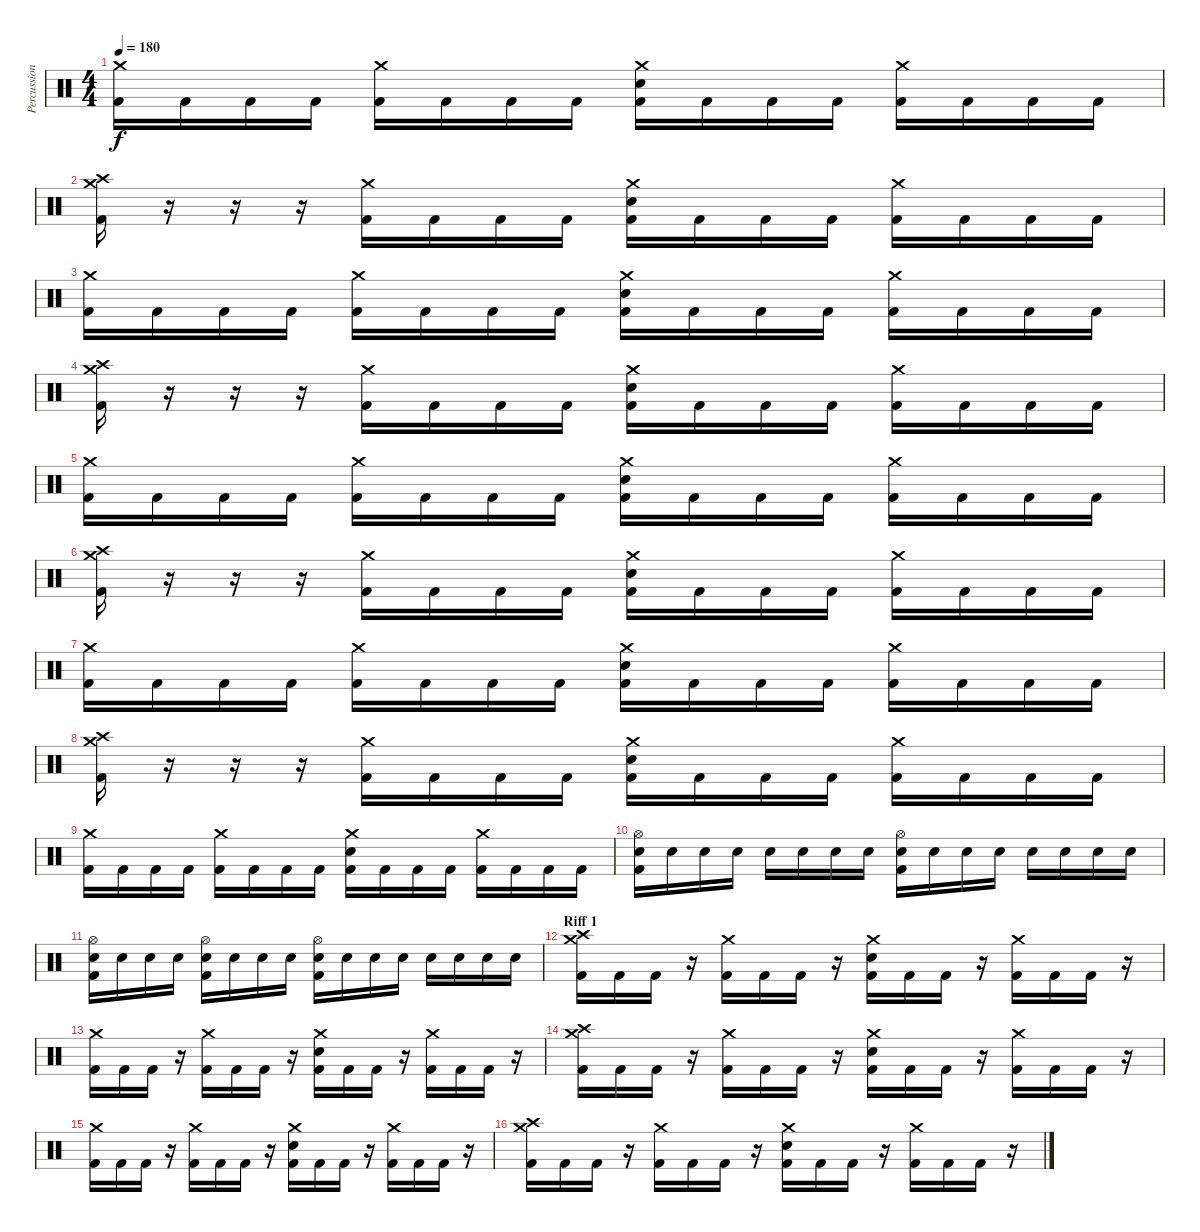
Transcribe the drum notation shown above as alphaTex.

\track ("Percussion" "Percussion") {instrument percussion}
\staff {score}
\articulation defaults
\ts (4 4)
\tempo 180
\clef neutral
\ks c
("Crash medium (hit)" "Kick (hit) 2").16{dy f} "Kick (hit) 2".16 "Kick (hit) 2".16 "Kick (hit) 2".16 ("Crash medium (hit)" "Kick (hit) 2").16 "Kick (hit) 2".16 "Kick (hit) 2".16 "Kick (hit) 2".16 ("Crash medium (hit)" "Electric Snare (hit)" "Kick (hit) 2").16 "Kick (hit) 2".16 "Kick (hit) 2".16 "Kick (hit) 2".16 ("Crash medium (hit)" "Kick (hit) 2").16 "Kick (hit) 2".16 "Kick (hit) 2".16 "Kick (hit) 2".16 |
("Crash medium (hit)" "Crash high (hit)" "Kick (hit) 2").16 r.16 r.16 r.16 ("Crash medium (hit)" "Kick (hit) 2").16 "Kick (hit) 2".16 "Kick (hit) 2".16 "Kick (hit) 2".16 ("Crash medium (hit)" "Electric Snare (hit)" "Kick (hit) 2").16 "Kick (hit) 2".16 "Kick (hit) 2".16 "Kick (hit) 2".16 ("Crash medium (hit)" "Kick (hit) 2").16 "Kick (hit) 2".16 "Kick (hit) 2".16 "Kick (hit) 2".16 |
("Crash medium (hit)" "Kick (hit) 2").16 "Kick (hit) 2".16 "Kick (hit) 2".16 "Kick (hit) 2".16 ("Crash medium (hit)" "Kick (hit) 2").16 "Kick (hit) 2".16 "Kick (hit) 2".16 "Kick (hit) 2".16 ("Crash medium (hit)" "Electric Snare (hit)" "Kick (hit) 2").16 "Kick (hit) 2".16 "Kick (hit) 2".16 "Kick (hit) 2".16 ("Crash medium (hit)" "Kick (hit) 2").16 "Kick (hit) 2".16 "Kick (hit) 2".16 "Kick (hit) 2".16 |
("Crash medium (hit)" "Crash high (hit)" "Kick (hit) 2").16 r.16 r.16 r.16 ("Crash medium (hit)" "Kick (hit) 2").16 "Kick (hit) 2".16 "Kick (hit) 2".16 "Kick (hit) 2".16 ("Crash medium (hit)" "Electric Snare (hit)" "Kick (hit) 2").16 "Kick (hit) 2".16 "Kick (hit) 2".16 "Kick (hit) 2".16 ("Crash medium (hit)" "Kick (hit) 2").16 "Kick (hit) 2".16 "Kick (hit) 2".16 "Kick (hit) 2".16 |
("Crash medium (hit)" "Kick (hit) 2").16 "Kick (hit) 2".16 "Kick (hit) 2".16 "Kick (hit) 2".16 ("Crash medium (hit)" "Kick (hit) 2").16 "Kick (hit) 2".16 "Kick (hit) 2".16 "Kick (hit) 2".16 ("Crash medium (hit)" "Electric Snare (hit)" "Kick (hit) 2").16 "Kick (hit) 2".16 "Kick (hit) 2".16 "Kick (hit) 2".16 ("Crash medium (hit)" "Kick (hit) 2").16 "Kick (hit) 2".16 "Kick (hit) 2".16 "Kick (hit) 2".16 |
("Crash medium (hit)" "Crash high (hit)" "Kick (hit) 2").16 r.16 r.16 r.16 ("Crash medium (hit)" "Kick (hit) 2").16 "Kick (hit) 2".16 "Kick (hit) 2".16 "Kick (hit) 2".16 ("Crash medium (hit)" "Electric Snare (hit)" "Kick (hit) 2").16 "Kick (hit) 2".16 "Kick (hit) 2".16 "Kick (hit) 2".16 ("Crash medium (hit)" "Kick (hit) 2").16 "Kick (hit) 2".16 "Kick (hit) 2".16 "Kick (hit) 2".16 |
("Crash medium (hit)" "Kick (hit) 2").16 "Kick (hit) 2".16 "Kick (hit) 2".16 "Kick (hit) 2".16 ("Crash medium (hit)" "Kick (hit) 2").16 "Kick (hit) 2".16 "Kick (hit) 2".16 "Kick (hit) 2".16 ("Crash medium (hit)" "Electric Snare (hit)" "Kick (hit) 2").16 "Kick (hit) 2".16 "Kick (hit) 2".16 "Kick (hit) 2".16 ("Crash medium (hit)" "Kick (hit) 2").16 "Kick (hit) 2".16 "Kick (hit) 2".16 "Kick (hit) 2".16 |
("Crash medium (hit)" "Crash high (hit)" "Kick (hit) 2").16 r.16 r.16 r.16 ("Crash medium (hit)" "Kick (hit) 2").16 "Kick (hit) 2".16 "Kick (hit) 2".16 "Kick (hit) 2".16 ("Crash medium (hit)" "Electric Snare (hit)" "Kick (hit) 2").16 "Kick (hit) 2".16 "Kick (hit) 2".16 "Kick (hit) 2".16 ("Crash medium (hit)" "Kick (hit) 2").16 "Kick (hit) 2".16 "Kick (hit) 2".16 "Kick (hit) 2".16 |
("Crash medium (hit)" "Kick (hit) 2").16 "Kick (hit) 2".16 "Kick (hit) 2".16 "Kick (hit) 2".16 ("Crash medium (hit)" "Kick (hit) 2").16 "Kick (hit) 2".16 "Kick (hit) 2".16 "Kick (hit) 2".16 ("Crash medium (hit)" "Electric Snare (hit)" "Kick (hit) 2").16 "Kick (hit) 2".16 "Kick (hit) 2".16 "Kick (hit) 2".16 ("Crash medium (hit)" "Kick (hit) 2").16 "Kick (hit) 2".16 "Kick (hit) 2".16 "Kick (hit) 2".16 |
("Hi-Hat (open)" "Electric Snare (hit)" "Kick (hit) 2").16 "Electric Snare (hit)".16 "Electric Snare (hit)".16 "Electric Snare (hit)".16 "Electric Snare (hit)".16 "Electric Snare (hit)".16 "Electric Snare (hit)".16 "Electric Snare (hit)".16 ("Hi-Hat (open)" "Electric Snare (hit)" "Kick (hit) 2").16 "Electric Snare (hit)".16 "Electric Snare (hit)".16 "Electric Snare (hit)".16 "Electric Snare (hit)".16 "Electric Snare (hit)".16 "Electric Snare (hit)".16 "Electric Snare (hit)".16 |
("Hi-Hat (open)" "Electric Snare (hit)" "Kick (hit) 2").16 "Electric Snare (hit)".16 "Electric Snare (hit)".16 "Electric Snare (hit)".16 ("Hi-Hat (open)" "Electric Snare (hit)" "Kick (hit) 2").16 "Electric Snare (hit)".16 "Electric Snare (hit)".16 "Electric Snare (hit)".16 ("Hi-Hat (open)" "Electric Snare (hit)" "Kick (hit) 2").16 "Electric Snare (hit)".16 "Electric Snare (hit)".16 "Electric Snare (hit)".16 "Electric Snare (hit)".16 "Electric Snare (hit)".16 "Electric Snare (hit)".16 "Electric Snare (hit)".16 |
\section ("" "Riff 1")
("Crash medium (hit)" "Crash high (hit)" "Kick (hit) 2").16 "Kick (hit) 2".16 "Kick (hit) 2".16 r.16 ("Crash medium (hit)" "Kick (hit) 2").16 "Kick (hit) 2".16 "Kick (hit) 2".16 r.16 ("Crash medium (hit)" "Electric Snare (hit)" "Kick (hit) 2").16 "Kick (hit) 2".16 "Kick (hit) 2".16 r.16 ("Crash medium (hit)" "Kick (hit) 2").16 "Kick (hit) 2".16 "Kick (hit) 2".16 r.16 |
("Crash medium (hit)" "Kick (hit) 2").16 "Kick (hit) 2".16 "Kick (hit) 2".16 r.16 ("Crash medium (hit)" "Kick (hit) 2").16 "Kick (hit) 2".16 "Kick (hit) 2".16 r.16 ("Crash medium (hit)" "Electric Snare (hit)" "Kick (hit) 2").16 "Kick (hit) 2".16 "Kick (hit) 2".16 r.16 ("Crash medium (hit)" "Kick (hit) 2").16 "Kick (hit) 2".16 "Kick (hit) 2".16 r.16 |
("Crash medium (hit)" "Crash high (hit)" "Kick (hit) 2").16 "Kick (hit) 2".16 "Kick (hit) 2".16 r.16 ("Crash medium (hit)" "Kick (hit) 2").16 "Kick (hit) 2".16 "Kick (hit) 2".16 r.16 ("Crash medium (hit)" "Electric Snare (hit)" "Kick (hit) 2").16 "Kick (hit) 2".16 "Kick (hit) 2".16 r.16 ("Crash medium (hit)" "Kick (hit) 2").16 "Kick (hit) 2".16 "Kick (hit) 2".16 r.16 |
("Crash medium (hit)" "Kick (hit) 2").16 "Kick (hit) 2".16 "Kick (hit) 2".16 r.16 ("Crash medium (hit)" "Kick (hit) 2").16 "Kick (hit) 2".16 "Kick (hit) 2".16 r.16 ("Crash medium (hit)" "Electric Snare (hit)" "Kick (hit) 2").16 "Kick (hit) 2".16 "Kick (hit) 2".16 r.16 ("Crash medium (hit)" "Kick (hit) 2").16 "Kick (hit) 2".16 "Kick (hit) 2".16 r.16 |
("Crash medium (hit)" "Crash high (hit)" "Kick (hit) 2").16 "Kick (hit) 2".16 "Kick (hit) 2".16 r.16 ("Crash medium (hit)" "Kick (hit) 2").16 "Kick (hit) 2".16 "Kick (hit) 2".16 r.16 ("Crash medium (hit)" "Electric Snare (hit)" "Kick (hit) 2").16 "Kick (hit) 2".16 "Kick (hit) 2".16 r.16 ("Crash medium (hit)" "Kick (hit) 2").16 "Kick (hit) 2".16 "Kick (hit) 2".16 r.16
